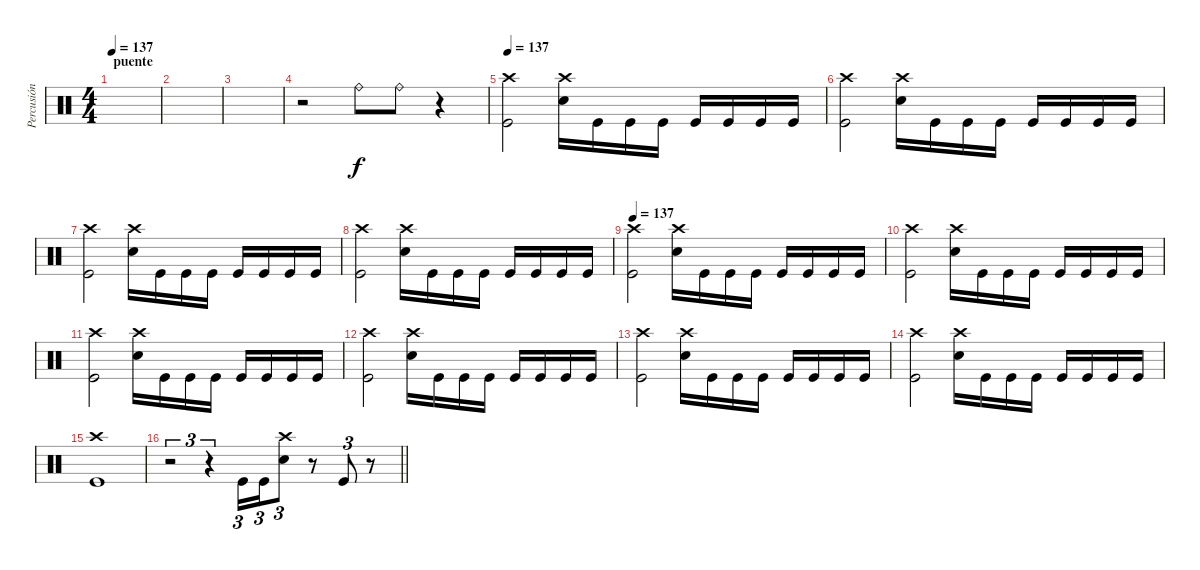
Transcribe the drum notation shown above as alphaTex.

\track ("Percusión" "Percusión") {instrument percussion}
\staff
\articulation defaults
\ts (4 4)
\section ("" "puente")
\tempo 137
\clef neutral
\ks c
|
|
|
r.2 "Ride (bell)".8 "Ride (bell)".8 r.4 |
\tempo 137
("Kick (hit)" "Crash high (hit)").2 ("Crash high (hit)" "Electric Snare (hit)").16 "Kick (hit)".16 "Kick (hit)".16 "Kick (hit)".16 "Kick (hit)".16 "Kick (hit)".16 "Kick (hit)".16 "Kick (hit)".16 |
("Kick (hit)" "Crash high (hit)").2 ("Crash high (hit)" "Electric Snare (hit)").16 "Kick (hit)".16 "Kick (hit)".16 "Kick (hit)".16 "Kick (hit)".16 "Kick (hit)".16 "Kick (hit)".16 "Kick (hit)".16 |
("Kick (hit)" "Crash high (hit)").2 ("Crash high (hit)" "Electric Snare (hit)").16 "Kick (hit)".16 "Kick (hit)".16 "Kick (hit)".16 "Kick (hit)".16 "Kick (hit)".16 "Kick (hit)".16 "Kick (hit)".16 |
("Kick (hit)" "Crash high (hit)").2 ("Crash high (hit)" "Electric Snare (hit)").16 "Kick (hit)".16 "Kick (hit)".16 "Kick (hit)".16 "Kick (hit)".16 "Kick (hit)".16 "Kick (hit)".16 "Kick (hit)".16 |
\tempo 137
("Kick (hit)" "Crash high (hit)").2 ("Crash high (hit)" "Electric Snare (hit)").16 "Kick (hit)".16 "Kick (hit)".16 "Kick (hit)".16 "Kick (hit)".16 "Kick (hit)".16 "Kick (hit)".16 "Kick (hit)".16 |
("Kick (hit)" "Crash high (hit)").2 ("Crash high (hit)" "Electric Snare (hit)").16 "Kick (hit)".16 "Kick (hit)".16 "Kick (hit)".16 "Kick (hit)".16 "Kick (hit)".16 "Kick (hit)".16 "Kick (hit)".16 |
("Kick (hit)" "Crash high (hit)").2 ("Crash high (hit)" "Electric Snare (hit)").16 "Kick (hit)".16 "Kick (hit)".16 "Kick (hit)".16 "Kick (hit)".16 "Kick (hit)".16 "Kick (hit)".16 "Kick (hit)".16 |
("Kick (hit)" "Crash high (hit)").2 ("Crash high (hit)" "Electric Snare (hit)").16 "Kick (hit)".16 "Kick (hit)".16 "Kick (hit)".16 "Kick (hit)".16 "Kick (hit)".16 "Kick (hit)".16 "Kick (hit)".16 |
("Kick (hit)" "Crash high (hit)").2 ("Crash high (hit)" "Electric Snare (hit)").16 "Kick (hit)".16 "Kick (hit)".16 "Kick (hit)".16 "Kick (hit)".16 "Kick (hit)".16 "Kick (hit)".16 "Kick (hit)".16 |
("Kick (hit)" "Crash high (hit)").2 ("Crash high (hit)" "Electric Snare (hit)").16 "Kick (hit)".16 "Kick (hit)".16 "Kick (hit)".16 "Kick (hit)".16 "Kick (hit)".16 "Kick (hit)".16 "Kick (hit)".16 |
("Kick (hit)" "Crash high (hit)").1 |
\barLineRight lightlight
r.2{tu (3 2)} r.4{tu (3 2)} "Kick (hit)".16{tu (3 2)} "Kick (hit)".16{tu (3 2)} ("Electric Snare (hit)" "Crash high (hit)").8{tu (3 2)} r.8 "Kick (hit)".8{tu (3 2)} r.8
